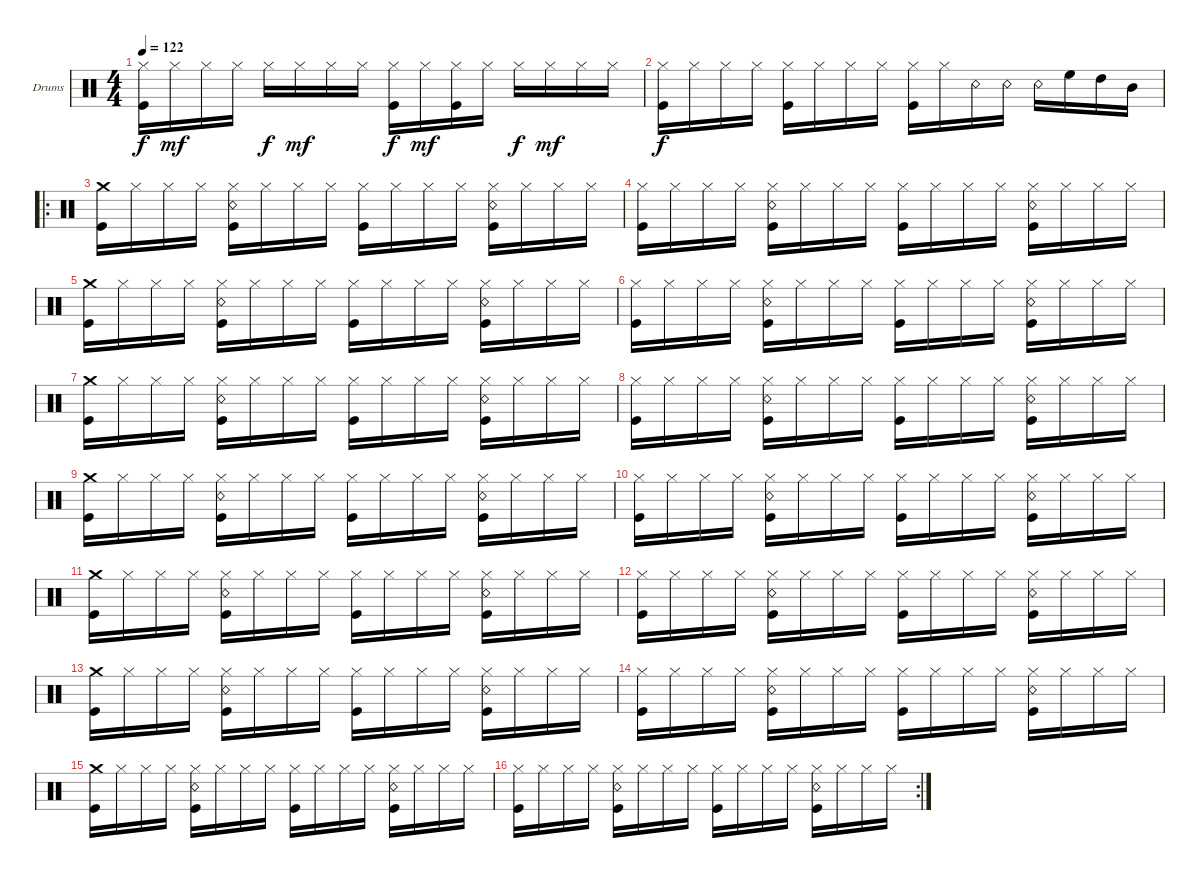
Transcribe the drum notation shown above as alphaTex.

\defaultSystemsLayout 4
\bracketExtendMode groupsimilarinstruments
\firstSystemTrackNameOrientation horizontal
\otherSystemsTrackNameOrientation horizontal
\track ("Drumkit" "Drums") {instrument percussion}
\staff {score}
\articulation defaults
\ts (4 4)
\tempo 122
\clef neutral
\ks c
("Hi-Hat (closed)" "Kick (hit)").16{dy f} "Hi-Hat (closed)".16{dy mf} "Hi-Hat (closed)".16 "Hi-Hat (closed)".16 "Hi-Hat (closed)".16{dy f} "Hi-Hat (closed)".16{dy mf} "Hi-Hat (closed)".16 "Hi-Hat (closed)".16 ("Hi-Hat (closed)" "Kick (hit)").16{dy f} "Hi-Hat (closed)".16{dy mf} ("Hi-Hat (closed)" "Kick (hit)").16 "Hi-Hat (closed)".16 "Hi-Hat (closed)".16{dy f} "Hi-Hat (closed)".16{dy mf} "Hi-Hat (closed)".16 "Hi-Hat (closed)".16 |
("Hi-Hat (closed)" "Kick (hit)").16{dy f} "Hi-Hat (closed)".16 "Hi-Hat (closed)".16 "Hi-Hat (closed)".16 ("Hi-Hat (closed)" "Kick (hit)").16 "Hi-Hat (closed)".16 "Hi-Hat (closed)".16 "Hi-Hat (closed)".16 ("Hi-Hat (closed)" "Kick (hit)").16 "Hi-Hat (closed)".16 "Snare (rim shot)".16 "Snare (rim shot)".16 "Snare (rim shot)".16 "High Floor Tom (hit)".16 "High Tom (hit)".16 "Mid Tom (hit)".16 |
\ro
("Kick (hit)" "Crash medium (hit)").16 "Hi-Hat (closed)".16 "Hi-Hat (closed)".16 "Hi-Hat (closed)".16 ("Hi-Hat (closed)" "Kick (hit)" "Snare (rim shot)").16 "Hi-Hat (closed)".16 "Hi-Hat (closed)".16 "Hi-Hat (closed)".16 ("Hi-Hat (closed)" "Kick (hit)").16 "Hi-Hat (closed)".16 "Hi-Hat (closed)".16 "Hi-Hat (closed)".16 ("Hi-Hat (closed)" "Kick (hit)" "Snare (rim shot)").16 "Hi-Hat (closed)".16 "Hi-Hat (closed)".16 "Hi-Hat (closed)".16 |
("Hi-Hat (closed)" "Kick (hit)").16 "Hi-Hat (closed)".16 "Hi-Hat (closed)".16 "Hi-Hat (closed)".16 ("Hi-Hat (closed)" "Kick (hit)" "Snare (rim shot)").16 "Hi-Hat (closed)".16 "Hi-Hat (closed)".16 "Hi-Hat (closed)".16 ("Hi-Hat (closed)" "Kick (hit)").16 "Hi-Hat (closed)".16 "Hi-Hat (closed)".16 "Hi-Hat (closed)".16 ("Hi-Hat (closed)" "Kick (hit)" "Snare (rim shot)").16 "Hi-Hat (closed)".16 "Hi-Hat (closed)".16 "Hi-Hat (closed)".16 |
("Kick (hit)" "Crash medium (hit)").16 "Hi-Hat (closed)".16 "Hi-Hat (closed)".16 "Hi-Hat (closed)".16 ("Hi-Hat (closed)" "Kick (hit)" "Snare (rim shot)").16 "Hi-Hat (closed)".16 "Hi-Hat (closed)".16 "Hi-Hat (closed)".16 ("Hi-Hat (closed)" "Kick (hit)").16 "Hi-Hat (closed)".16 "Hi-Hat (closed)".16 "Hi-Hat (closed)".16 ("Hi-Hat (closed)" "Kick (hit)" "Snare (rim shot)").16 "Hi-Hat (closed)".16 "Hi-Hat (closed)".16 "Hi-Hat (closed)".16 |
("Hi-Hat (closed)" "Kick (hit)").16 "Hi-Hat (closed)".16 "Hi-Hat (closed)".16 "Hi-Hat (closed)".16 ("Hi-Hat (closed)" "Kick (hit)" "Snare (rim shot)").16 "Hi-Hat (closed)".16 "Hi-Hat (closed)".16 "Hi-Hat (closed)".16 ("Hi-Hat (closed)" "Kick (hit)").16 "Hi-Hat (closed)".16 "Hi-Hat (closed)".16 "Hi-Hat (closed)".16 ("Hi-Hat (closed)" "Kick (hit)" "Snare (rim shot)").16 "Hi-Hat (closed)".16 "Hi-Hat (closed)".16 "Hi-Hat (closed)".16 |
("Kick (hit)" "Crash medium (hit)").16 "Hi-Hat (closed)".16 "Hi-Hat (closed)".16 "Hi-Hat (closed)".16 ("Hi-Hat (closed)" "Kick (hit)" "Snare (rim shot)").16 "Hi-Hat (closed)".16 "Hi-Hat (closed)".16 "Hi-Hat (closed)".16 ("Hi-Hat (closed)" "Kick (hit)").16 "Hi-Hat (closed)".16 "Hi-Hat (closed)".16 "Hi-Hat (closed)".16 ("Hi-Hat (closed)" "Kick (hit)" "Snare (rim shot)").16 "Hi-Hat (closed)".16 "Hi-Hat (closed)".16 "Hi-Hat (closed)".16 |
("Hi-Hat (closed)" "Kick (hit)").16 "Hi-Hat (closed)".16 "Hi-Hat (closed)".16 "Hi-Hat (closed)".16 ("Hi-Hat (closed)" "Kick (hit)" "Snare (rim shot)").16 "Hi-Hat (closed)".16 "Hi-Hat (closed)".16 "Hi-Hat (closed)".16 ("Hi-Hat (closed)" "Kick (hit)").16 "Hi-Hat (closed)".16 "Hi-Hat (closed)".16 "Hi-Hat (closed)".16 ("Hi-Hat (closed)" "Kick (hit)" "Snare (rim shot)").16 "Hi-Hat (closed)".16 "Hi-Hat (closed)".16 "Hi-Hat (closed)".16 |
("Kick (hit)" "Crash medium (hit)").16 "Hi-Hat (closed)".16 "Hi-Hat (closed)".16 "Hi-Hat (closed)".16 ("Hi-Hat (closed)" "Kick (hit)" "Snare (rim shot)").16 "Hi-Hat (closed)".16 "Hi-Hat (closed)".16 "Hi-Hat (closed)".16 ("Hi-Hat (closed)" "Kick (hit)").16 "Hi-Hat (closed)".16 "Hi-Hat (closed)".16 "Hi-Hat (closed)".16 ("Hi-Hat (closed)" "Kick (hit)" "Snare (rim shot)").16 "Hi-Hat (closed)".16 "Hi-Hat (closed)".16 "Hi-Hat (closed)".16 |
("Hi-Hat (closed)" "Kick (hit)").16 "Hi-Hat (closed)".16 "Hi-Hat (closed)".16 "Hi-Hat (closed)".16 ("Hi-Hat (closed)" "Kick (hit)" "Snare (rim shot)").16 "Hi-Hat (closed)".16 "Hi-Hat (closed)".16 "Hi-Hat (closed)".16 ("Hi-Hat (closed)" "Kick (hit)").16 "Hi-Hat (closed)".16 "Hi-Hat (closed)".16 "Hi-Hat (closed)".16 ("Hi-Hat (closed)" "Kick (hit)" "Snare (rim shot)").16 "Hi-Hat (closed)".16 "Hi-Hat (closed)".16 "Hi-Hat (closed)".16 |
("Kick (hit)" "Crash medium (hit)").16 "Hi-Hat (closed)".16 "Hi-Hat (closed)".16 "Hi-Hat (closed)".16 ("Hi-Hat (closed)" "Kick (hit)" "Snare (rim shot)").16 "Hi-Hat (closed)".16 "Hi-Hat (closed)".16 "Hi-Hat (closed)".16 ("Hi-Hat (closed)" "Kick (hit)").16 "Hi-Hat (closed)".16 "Hi-Hat (closed)".16 "Hi-Hat (closed)".16 ("Hi-Hat (closed)" "Kick (hit)" "Snare (rim shot)").16 "Hi-Hat (closed)".16 "Hi-Hat (closed)".16 "Hi-Hat (closed)".16 |
("Hi-Hat (closed)" "Kick (hit)").16 "Hi-Hat (closed)".16 "Hi-Hat (closed)".16 "Hi-Hat (closed)".16 ("Hi-Hat (closed)" "Kick (hit)" "Snare (rim shot)").16 "Hi-Hat (closed)".16 "Hi-Hat (closed)".16 "Hi-Hat (closed)".16 ("Hi-Hat (closed)" "Kick (hit)").16 "Hi-Hat (closed)".16 "Hi-Hat (closed)".16 "Hi-Hat (closed)".16 ("Hi-Hat (closed)" "Kick (hit)" "Snare (rim shot)").16 "Hi-Hat (closed)".16 "Hi-Hat (closed)".16 "Hi-Hat (closed)".16 |
("Kick (hit)" "Crash medium (hit)").16 "Hi-Hat (closed)".16 "Hi-Hat (closed)".16 "Hi-Hat (closed)".16 ("Hi-Hat (closed)" "Kick (hit)" "Snare (rim shot)").16 "Hi-Hat (closed)".16 "Hi-Hat (closed)".16 "Hi-Hat (closed)".16 ("Hi-Hat (closed)" "Kick (hit)").16 "Hi-Hat (closed)".16 "Hi-Hat (closed)".16 "Hi-Hat (closed)".16 ("Hi-Hat (closed)" "Kick (hit)" "Snare (rim shot)").16 "Hi-Hat (closed)".16 "Hi-Hat (closed)".16 "Hi-Hat (closed)".16 |
("Hi-Hat (closed)" "Kick (hit)").16 "Hi-Hat (closed)".16 "Hi-Hat (closed)".16 "Hi-Hat (closed)".16 ("Hi-Hat (closed)" "Kick (hit)" "Snare (rim shot)").16 "Hi-Hat (closed)".16 "Hi-Hat (closed)".16 "Hi-Hat (closed)".16 ("Hi-Hat (closed)" "Kick (hit)").16 "Hi-Hat (closed)".16 "Hi-Hat (closed)".16 "Hi-Hat (closed)".16 ("Hi-Hat (closed)" "Kick (hit)" "Snare (rim shot)").16 "Hi-Hat (closed)".16 "Hi-Hat (closed)".16 "Hi-Hat (closed)".16 |
("Kick (hit)" "Crash medium (hit)").16 "Hi-Hat (closed)".16 "Hi-Hat (closed)".16 "Hi-Hat (closed)".16 ("Hi-Hat (closed)" "Kick (hit)" "Snare (rim shot)").16 "Hi-Hat (closed)".16 "Hi-Hat (closed)".16 "Hi-Hat (closed)".16 ("Hi-Hat (closed)" "Kick (hit)").16 "Hi-Hat (closed)".16 "Hi-Hat (closed)".16 "Hi-Hat (closed)".16 ("Hi-Hat (closed)" "Kick (hit)" "Snare (rim shot)").16 "Hi-Hat (closed)".16 "Hi-Hat (closed)".16 "Hi-Hat (closed)".16 |
\rc 2
("Hi-Hat (closed)" "Kick (hit)").16 "Hi-Hat (closed)".16 "Hi-Hat (closed)".16 "Hi-Hat (closed)".16 ("Hi-Hat (closed)" "Kick (hit)" "Snare (rim shot)").16 "Hi-Hat (closed)".16 "Hi-Hat (closed)".16 "Hi-Hat (closed)".16 ("Hi-Hat (closed)" "Kick (hit)").16 "Hi-Hat (closed)".16 "Hi-Hat (closed)".16 "Hi-Hat (closed)".16 ("Hi-Hat (closed)" "Kick (hit)" "Snare (rim shot)").16 "Hi-Hat (closed)".16 "Hi-Hat (closed)".16 "Hi-Hat (closed)".16
